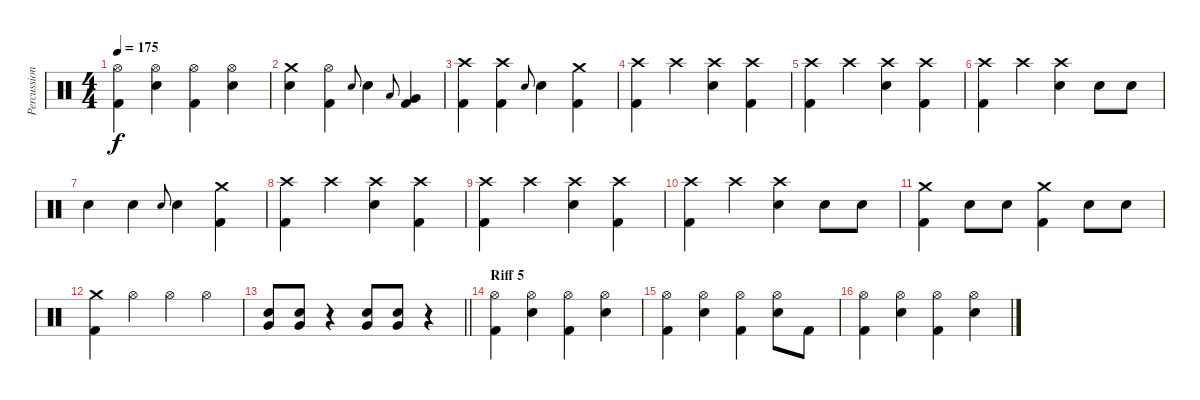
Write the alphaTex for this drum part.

\track ("Percussion" "Percussion") {instrument percussion}
\staff {score}
\articulation defaults
\ts (4 4)
\tempo 175
\clef neutral
\ks c
("Hi-Hat (open)" "Kick (hit) 2").4{dy f} ("Hi-Hat (open)" "Electric Snare (hit)").4 ("Hi-Hat (open)" "Kick (hit) 2").4 ("Hi-Hat (open)" "Electric Snare (hit)").4 |
("Crash medium (hit)" "Electric Snare (hit)").4 ("Hi-Hat (open)" "Kick (hit) 2").4 "Electric Snare (hit)".8{gr onbeat} "Electric Snare (hit)".4 "Low Tom (hit)".8{gr onbeat} ("Very Low Tom (hit)" "Kick (hit) 2").4 |
("Crash high (hit)" "Kick (hit) 2").4 ("Crash high (hit)" "Kick (hit) 2").4 "Electric Snare (hit)".8{gr onbeat} "Electric Snare (hit)".4 ("Crash medium (hit)" "Kick (hit) 2").4 |
("Crash high (hit)" "Kick (hit) 2").4 "Crash high (hit)".4 ("Crash high (hit)" "Electric Snare (hit)").4 ("Crash high (hit)" "Kick (hit) 2").4 |
("Crash high (hit)" "Kick (hit) 2").4 "Crash high (hit)".4 ("Crash high (hit)" "Electric Snare (hit)").4 ("Crash high (hit)" "Kick (hit) 2").4 |
("Crash high (hit)" "Kick (hit) 2").4 "Crash high (hit)".4 ("Crash high (hit)" "Electric Snare (hit)").4 "Electric Snare (hit)".8 "Electric Snare (hit)".8 |
"Electric Snare (hit)".4 "Electric Snare (hit)".4 "Electric Snare (hit)".8{gr onbeat} "Electric Snare (hit)".4 ("Crash medium (hit)" "Kick (hit) 2").4 |
("Crash high (hit)" "Kick (hit) 2").4 "Crash high (hit)".4 ("Crash high (hit)" "Electric Snare (hit)").4 ("Crash high (hit)" "Kick (hit) 2").4 |
("Crash high (hit)" "Kick (hit) 2").4 "Crash high (hit)".4 ("Crash high (hit)" "Electric Snare (hit)").4 ("Crash high (hit)" "Kick (hit) 2").4 |
("Crash high (hit)" "Kick (hit) 2").4 "Crash high (hit)".4 ("Crash high (hit)" "Electric Snare (hit)").4 "Electric Snare (hit)".8 "Electric Snare (hit)".8 |
("Crash medium (hit)" "Kick (hit) 2").4 "Electric Snare (hit)".8 "Electric Snare (hit)".8 ("Crash medium (hit)" "Kick (hit) 2").4 "Electric Snare (hit)".8 "Electric Snare (hit)".8 |
("Crash medium (hit)" "Kick (hit) 2").4 "Hi-Hat (open)".4 "Hi-Hat (open)".4 "Hi-Hat (open)".4 |
\barLineRight lightlight
("Electric Snare (hit)" "Very Low Tom (hit)").8 ("Electric Snare (hit)" "Very Low Tom (hit)").8 r.4 ("Electric Snare (hit)" "Very Low Tom (hit)").8 ("Electric Snare (hit)" "Very Low Tom (hit)").8 r.4 |
\section ("" "Riff 5")
("Hi-Hat (open)" "Kick (hit) 2").4 ("Hi-Hat (open)" "Electric Snare (hit)").4 ("Hi-Hat (open)" "Kick (hit) 2").4 ("Hi-Hat (open)" "Electric Snare (hit)").4 |
("Hi-Hat (open)" "Kick (hit) 2").4 ("Hi-Hat (open)" "Electric Snare (hit)").4 ("Hi-Hat (open)" "Kick (hit) 2").4 ("Hi-Hat (open)" "Electric Snare (hit)").8 "Kick (hit) 2".8 |
("Hi-Hat (open)" "Kick (hit) 2").4 ("Hi-Hat (open)" "Electric Snare (hit)").4 ("Hi-Hat (open)" "Kick (hit) 2").4 ("Hi-Hat (open)" "Electric Snare (hit)").4
